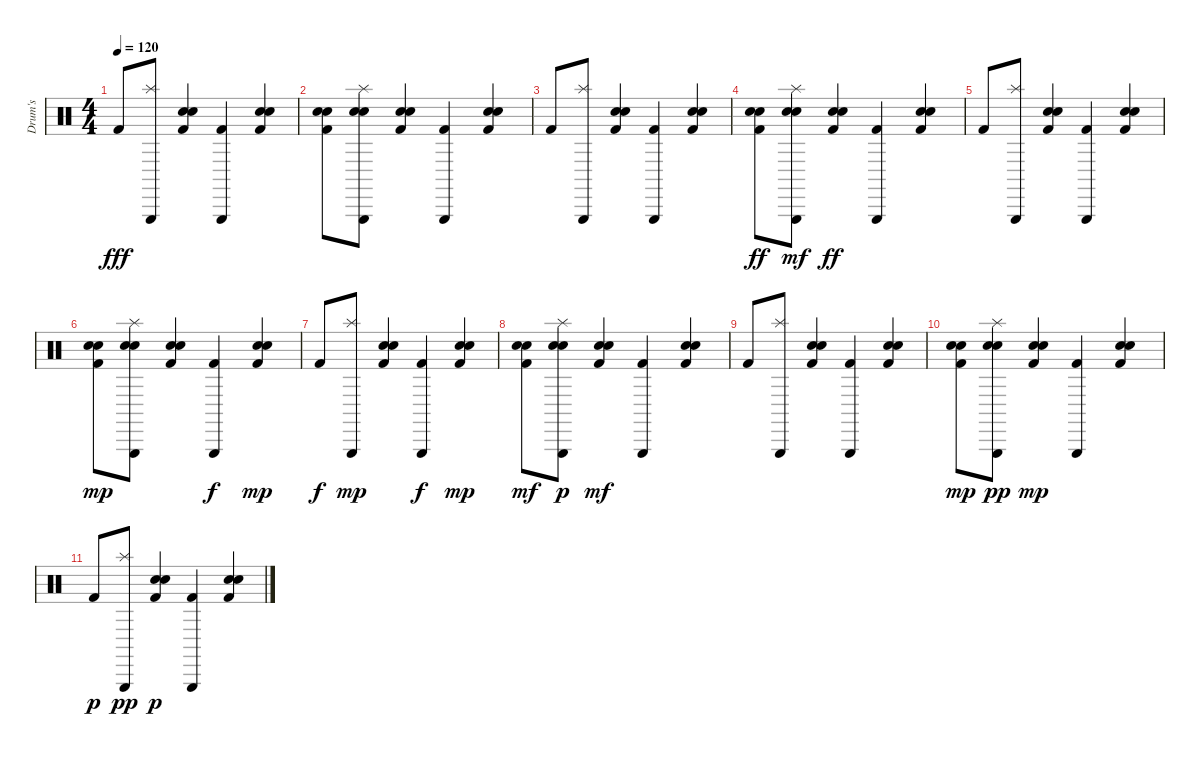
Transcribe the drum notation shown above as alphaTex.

\track ("Drum's" "Drum's") {instrument percussion}
\staff {score}
\articulation defaults
\ts (4 4)
\tempo 120
\clef neutral
\ks c "Kick (hit) 2".8{dy fff}
("Splash (hit)" "Triangle (hit)").8 ("Hand Clap (hit)" "Snare (hit) 2" "Kick (hit) 2").4 ("Triangle (hit)" "Kick (hit) 2").4 ("Hand Clap (hit)" "Snare (hit) 2" "Kick (hit) 2").4 |
("Hand Clap (hit)" "Snare (hit) 2" "Kick (hit) 2").8 ("Splash (hit)" "Triangle (hit)" "Hand Clap (hit)" "Snare (hit) 2").8 ("Hand Clap (hit)" "Snare (hit) 2" "Kick (hit) 2").4 ("Triangle (hit)" "Kick (hit) 2").4 ("Hand Clap (hit)" "Snare (hit) 2" "Kick (hit) 2").4 |
"Kick (hit) 2".8 ("Splash (hit)" "Triangle (hit)").8 ("Hand Clap (hit)" "Snare (hit) 2" "Kick (hit) 2").4 ("Triangle (hit)" "Kick (hit) 2").4 ("Hand Clap (hit)" "Snare (hit) 2" "Kick (hit) 2").4 |
("Hand Clap (hit)" "Snare (hit) 2" "Kick (hit) 2").8{dy ff} ("Splash (hit)" "Triangle (hit)" "Hand Clap (hit)" "Snare (hit) 2").8{dy mf} ("Hand Clap (hit)" "Snare (hit) 2" "Kick (hit) 2").4{dy ff} ("Triangle (hit)" "Kick (hit) 2").4 ("Hand Clap (hit)" "Snare (hit) 2" "Kick (hit) 2").4 |
"Kick (hit) 2".8 ("Splash (hit)" "Triangle (hit)").8 ("Hand Clap (hit)" "Snare (hit) 2" "Kick (hit) 2").4 ("Triangle (hit)" "Kick (hit) 2").4 ("Hand Clap (hit)" "Snare (hit) 2" "Kick (hit) 2").4 |
("Hand Clap (hit)" "Snare (hit) 2" "Kick (hit) 2").8{dy mp} ("Splash (hit)" "Triangle (hit)" "Hand Clap (hit)" "Snare (hit) 2").8 ("Hand Clap (hit)" "Snare (hit) 2" "Kick (hit) 2").4 ("Triangle (hit)" "Kick (hit) 2").4{dy f} ("Hand Clap (hit)" "Snare (hit) 2" "Kick (hit) 2").4{dy mp} |
"Kick (hit) 2".8{dy f} ("Splash (hit)" "Triangle (hit)").8{dy mp} ("Hand Clap (hit)" "Snare (hit) 2" "Kick (hit) 2").4 ("Triangle (hit)" "Kick (hit) 2").4{dy f} ("Hand Clap (hit)" "Snare (hit) 2" "Kick (hit) 2").4{dy mp} |
("Hand Clap (hit)" "Snare (hit) 2" "Kick (hit) 2").8{dy mf} ("Splash (hit)" "Triangle (hit)" "Hand Clap (hit)" "Snare (hit) 2").8{dy p} ("Hand Clap (hit)" "Snare (hit) 2" "Kick (hit) 2").4{dy mf} ("Triangle (hit)" "Kick (hit) 2").4 ("Hand Clap (hit)" "Snare (hit) 2" "Kick (hit) 2").4 |
"Kick (hit) 2".8 ("Splash (hit)" "Triangle (hit)").8 ("Hand Clap (hit)" "Snare (hit) 2" "Kick (hit) 2").4 ("Triangle (hit)" "Kick (hit) 2").4 ("Hand Clap (hit)" "Snare (hit) 2" "Kick (hit) 2").4 |
("Hand Clap (hit)" "Snare (hit) 2" "Kick (hit) 2").8{dy mp} ("Splash (hit)" "Triangle (hit)" "Hand Clap (hit)" "Snare (hit) 2").8{dy pp} ("Hand Clap (hit)" "Snare (hit) 2" "Kick (hit) 2").4{dy mp} ("Triangle (hit)" "Kick (hit) 2").4 ("Hand Clap (hit)" "Snare (hit) 2" "Kick (hit) 2").4 |
"Kick (hit) 2".8{dy p} ("Splash (hit)" "Triangle (hit)").8{dy pp} ("Hand Clap (hit)" "Snare (hit) 2" "Kick (hit) 2").4{dy p} ("Triangle (hit)" "Kick (hit) 2").4 ("Hand Clap (hit)" "Snare (hit) 2" "Kick (hit) 2").4
